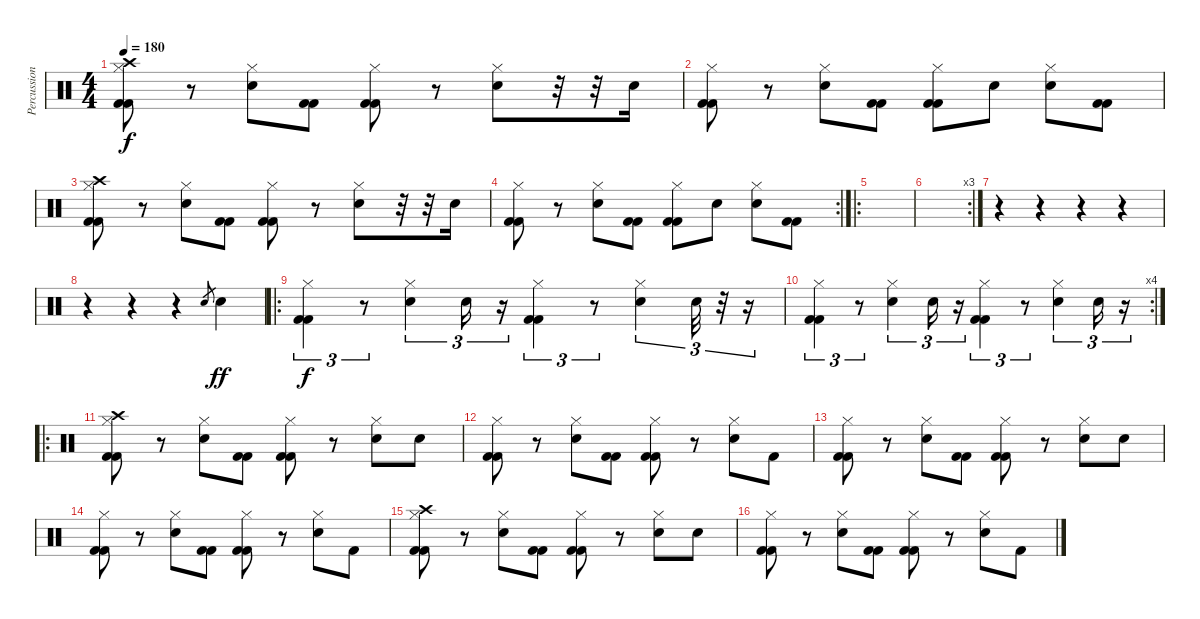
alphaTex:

\track ("Percussion" "Percussion") {instrument percussion}
\staff {score}
\articulation defaults
\ts (4 4)
\tempo 180
\clef neutral
\ks c
("Hi-Hat (closed)" "Crash high (hit)" "Kick (hit) 2" "Kick (hit) 2").8{dy f} r.8 ("Hi-Hat (closed)" "Snare (hit) 2").8 ("Kick (hit) 2" "Kick (hit) 2").8 ("Hi-Hat (closed)" "Kick (hit) 2" "Kick (hit) 2").8 r.8 ("Hi-Hat (closed)" "Snare (hit) 2").8 r.32 r.32 "Snare (hit) 2".16 |
("Hi-Hat (closed)" "Kick (hit) 2" "Kick (hit) 2").8 r.8 ("Hi-Hat (closed)" "Snare (hit) 2").8 ("Kick (hit) 2" "Kick (hit) 2").8 ("Hi-Hat (closed)" "Kick (hit) 2" "Kick (hit) 2").8 "Snare (hit) 2".8 ("Hi-Hat (closed)" "Snare (hit) 2").8 ("Kick (hit) 2" "Kick (hit) 2").8 |
("Hi-Hat (closed)" "Crash high (hit)" "Kick (hit) 2" "Kick (hit) 2").8 r.8 ("Hi-Hat (closed)" "Snare (hit) 2").8 ("Kick (hit) 2" "Kick (hit) 2").8 ("Hi-Hat (closed)" "Kick (hit) 2" "Kick (hit) 2").8 r.8 ("Hi-Hat (closed)" "Snare (hit) 2").8 r.32 r.32 "Snare (hit) 2".16 |
\rc 2
("Hi-Hat (closed)" "Kick (hit) 2" "Kick (hit) 2").8 r.8 ("Hi-Hat (closed)" "Snare (hit) 2").8 ("Kick (hit) 2" "Kick (hit) 2").8 ("Hi-Hat (closed)" "Kick (hit) 2" "Kick (hit) 2").8 "Snare (hit) 2".8 ("Hi-Hat (closed)" "Snare (hit) 2").8 ("Kick (hit) 2" "Kick (hit) 2").8 |
\ro
|
\rc 3
|
r.4 r.4 r.4 r.4 |
r.4 r.4 r.4 "Snare (hit) 2".8{gr} "Snare (hit) 2".4{dy ff} |
\ro
("Hi-Hat (closed)" "Kick (hit) 2" "Kick (hit) 2").4{tu (3 2) dy f} r.8{tu (3 2)} ("Hi-Hat (closed)" "Snare (hit) 2").4{tu (3 2)} "Snare (hit) 2".16{tu (3 2)} r.16{tu (3 2)} ("Hi-Hat (closed)" "Kick (hit) 2" "Kick (hit) 2").4{tu (3 2)} r.8{tu (3 2)} ("Hi-Hat (closed)" "Snare (hit) 2").4{tu (3 2)} "Snare (hit) 2".32{tu (3 2)} r.32{tu (3 2)} r.16{tu (3 2)} |
\rc 4
("Hi-Hat (closed)" "Kick (hit) 2" "Kick (hit) 2").4{tu (3 2)} r.8{tu (3 2)} ("Hi-Hat (closed)" "Snare (hit) 2").4{tu (3 2)} "Snare (hit) 2".16{tu (3 2)} r.16{tu (3 2)} ("Hi-Hat (closed)" "Kick (hit) 2" "Kick (hit) 2").4{tu (3 2)} r.8{tu (3 2)} ("Hi-Hat (closed)" "Snare (hit) 2").4{tu (3 2)} "Snare (hit) 2".16{tu (3 2)} r.16{tu (3 2)} |
\ro
("Hi-Hat (closed)" "Crash high (hit)" "Kick (hit) 2" "Kick (hit) 2").8 r.8 ("Hi-Hat (closed)" "Snare (hit) 2").8 ("Kick (hit) 2" "Kick (hit) 2").8 ("Hi-Hat (closed)" "Kick (hit) 2" "Kick (hit) 2").8 r.8 ("Hi-Hat (closed)" "Snare (hit) 2").8 "Snare (hit) 2".8 |
("Hi-Hat (closed)" "Kick (hit) 2" "Kick (hit) 2").8 r.8 ("Hi-Hat (closed)" "Snare (hit) 2").8 ("Kick (hit) 2" "Kick (hit) 2").8 ("Hi-Hat (closed)" "Kick (hit) 2" "Kick (hit) 2").8 r.8 ("Hi-Hat (closed)" "Snare (hit) 2").8 "Kick (hit) 2".8 |
("Hi-Hat (closed)" "Kick (hit) 2" "Kick (hit) 2").8 r.8 ("Hi-Hat (closed)" "Snare (hit) 2").8 ("Kick (hit) 2" "Kick (hit) 2").8 ("Hi-Hat (closed)" "Kick (hit) 2" "Kick (hit) 2").8 r.8 ("Hi-Hat (closed)" "Snare (hit) 2").8 "Snare (hit) 2".8 |
("Hi-Hat (closed)" "Kick (hit) 2" "Kick (hit) 2").8 r.8 ("Hi-Hat (closed)" "Snare (hit) 2").8 ("Kick (hit) 2" "Kick (hit) 2").8 ("Hi-Hat (closed)" "Kick (hit) 2" "Kick (hit) 2").8 r.8 ("Hi-Hat (closed)" "Snare (hit) 2").8 "Kick (hit) 2".8 |
("Hi-Hat (closed)" "Crash high (hit)" "Kick (hit) 2" "Kick (hit) 2").8 r.8 ("Hi-Hat (closed)" "Snare (hit) 2").8 ("Kick (hit) 2" "Kick (hit) 2").8 ("Hi-Hat (closed)" "Kick (hit) 2" "Kick (hit) 2").8 r.8 ("Hi-Hat (closed)" "Snare (hit) 2").8 "Snare (hit) 2".8 |
("Hi-Hat (closed)" "Kick (hit) 2" "Kick (hit) 2").8 r.8 ("Hi-Hat (closed)" "Snare (hit) 2").8 ("Kick (hit) 2" "Kick (hit) 2").8 ("Hi-Hat (closed)" "Kick (hit) 2" "Kick (hit) 2").8 r.8 ("Hi-Hat (closed)" "Snare (hit) 2").8 "Kick (hit) 2".8
